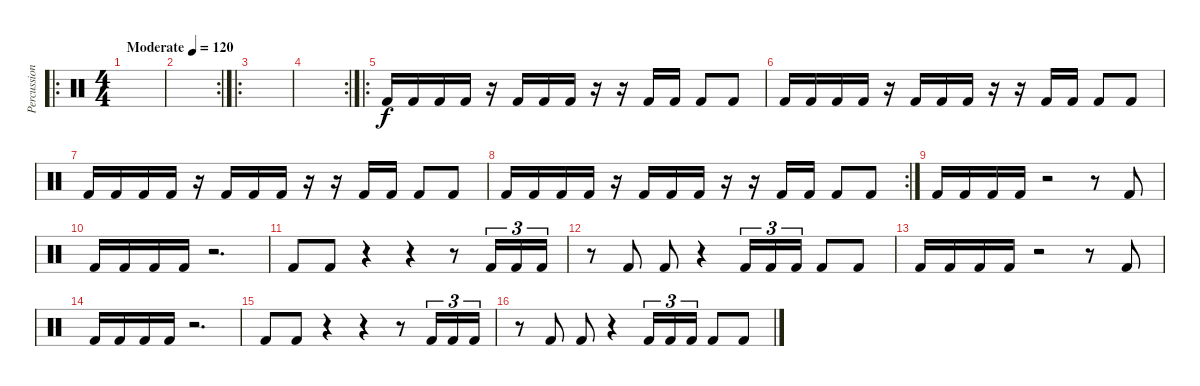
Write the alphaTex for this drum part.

\track ("Percussion" "Percussion") {instrument percussion}
\staff {score}
\articulation defaults
\ro
\ts (4 4)
\tempo (120 "Moderate")
\clef neutral
\ks c
|
\rc 2
|
\ro
|
\rc 2
|
\ro "Kick (hit) 2".16 "Kick (hit) 2".16 "Kick (hit) 2".16 "Kick (hit) 2".16
r.16 "Kick (hit) 2".16 "Kick (hit) 2".16 "Kick (hit) 2".16 r.16 r.16 "Kick (hit) 2".16 "Kick (hit) 2".16 "Kick (hit) 2".8 "Kick (hit) 2".8 |
"Kick (hit) 2".16 "Kick (hit) 2".16 "Kick (hit) 2".16 "Kick (hit) 2".16 r.16 "Kick (hit) 2".16 "Kick (hit) 2".16 "Kick (hit) 2".16 r.16 r.16 "Kick (hit) 2".16 "Kick (hit) 2".16 "Kick (hit) 2".8 "Kick (hit) 2".8 |
"Kick (hit) 2".16 "Kick (hit) 2".16 "Kick (hit) 2".16 "Kick (hit) 2".16 r.16 "Kick (hit) 2".16 "Kick (hit) 2".16 "Kick (hit) 2".16 r.16 r.16 "Kick (hit) 2".16 "Kick (hit) 2".16 "Kick (hit) 2".8 "Kick (hit) 2".8 |
\rc 2 "Kick (hit) 2".16 "Kick (hit) 2".16 "Kick (hit) 2".16 "Kick (hit) 2".16
r.16 "Kick (hit) 2".16 "Kick (hit) 2".16 "Kick (hit) 2".16 r.16 r.16 "Kick (hit) 2".16 "Kick (hit) 2".16 "Kick (hit) 2".8 "Kick (hit) 2".8 |
"Kick (hit) 2".16 "Kick (hit) 2".16 "Kick (hit) 2".16 "Kick (hit) 2".16 r.2 r.8 "Kick (hit) 2".8 |
"Kick (hit) 2".16 "Kick (hit) 2".16 "Kick (hit) 2".16 "Kick (hit) 2".16 r.2{d} |
"Kick (hit) 2".8 "Kick (hit) 2".8 r.4 r.4 r.8 "Kick (hit) 2".16{tu (3 2)} "Kick (hit) 2".16{tu (3 2)} "Kick (hit) 2".16{tu (3 2)} |
r.8 "Kick (hit) 2".8 "Kick (hit) 2".8 r.4 "Kick (hit) 2".16{tu (3 2)} "Kick (hit) 2".16{tu (3 2)} "Kick (hit) 2".16{tu (3 2)} "Kick (hit) 2".8 "Kick (hit) 2".8 |
"Kick (hit) 2".16 "Kick (hit) 2".16 "Kick (hit) 2".16 "Kick (hit) 2".16 r.2 r.8 "Kick (hit) 2".8 |
"Kick (hit) 2".16 "Kick (hit) 2".16 "Kick (hit) 2".16 "Kick (hit) 2".16 r.2{d} |
"Kick (hit) 2".8 "Kick (hit) 2".8 r.4 r.4 r.8 "Kick (hit) 2".16{tu (3 2)} "Kick (hit) 2".16{tu (3 2)} "Kick (hit) 2".16{tu (3 2)} |
r.8 "Kick (hit) 2".8 "Kick (hit) 2".8 r.4 "Kick (hit) 2".16{tu (3 2)} "Kick (hit) 2".16{tu (3 2)} "Kick (hit) 2".16{tu (3 2)} "Kick (hit) 2".8 "Kick (hit) 2".8
